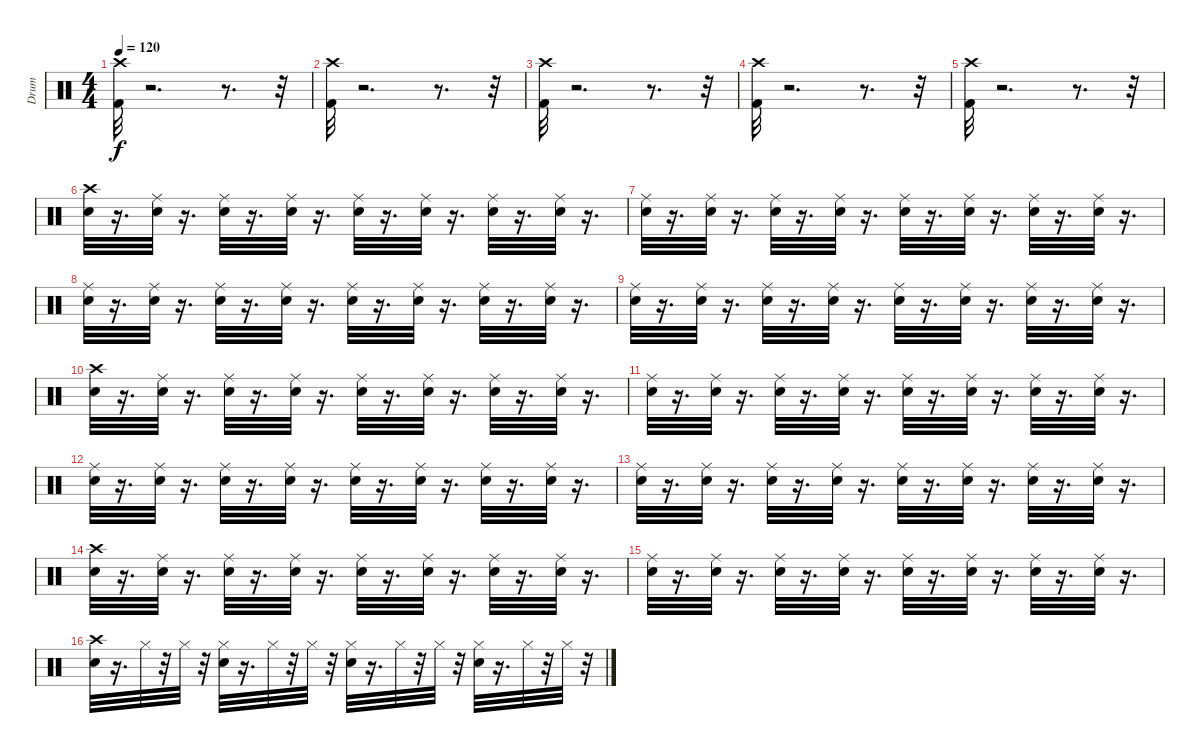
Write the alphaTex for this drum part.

\track ("Drum" "Drum") {instrument percussion}
\staff {score}
\articulation defaults
\ts (4 4)
\tempo 120
\clef neutral
\ks c
("Kick (hit) 2" "Crash high (hit)").32{dy f} r.2{d} r.8{d} r.32 |
("Kick (hit) 2" "Crash high (hit)").32 r.2{d} r.8{d} r.32 |
("Kick (hit) 2" "Crash high (hit)").32 r.2{d} r.8{d} r.32 |
("Kick (hit) 2" "Crash high (hit)").32 r.2{d} r.8{d} r.32 |
("Kick (hit) 2" "Crash high (hit)").32 r.2{d} r.8{d} r.32 |
("Crash high (hit)" "Snare (hit) 2").32 r.16{d} ("Ride (middle)" "Snare (hit) 2").32 r.16{d} ("Ride (middle)" "Snare (hit) 2").32 r.16{d} ("Ride (middle)" "Snare (hit) 2").32 r.16{d} ("Ride (middle)" "Snare (hit) 2").32 r.16{d} ("Ride (middle)" "Snare (hit) 2").32 r.16{d} ("Ride (middle)" "Snare (hit) 2").32 r.16{d} ("Ride (middle)" "Snare (hit) 2").32 r.16{d} |
("Ride (middle)" "Snare (hit) 2").32 r.16{d} ("Ride (middle)" "Snare (hit) 2").32 r.16{d} ("Ride (middle)" "Snare (hit) 2").32 r.16{d} ("Ride (middle)" "Snare (hit) 2").32 r.16{d} ("Ride (middle)" "Snare (hit) 2").32 r.16{d} ("Ride (middle)" "Snare (hit) 2").32 r.16{d} ("Ride (middle)" "Snare (hit) 2").32 r.16{d} ("Ride (middle)" "Snare (hit) 2").32 r.16{d} |
("Ride (middle)" "Snare (hit) 2").32 r.16{d} ("Ride (middle)" "Snare (hit) 2").32 r.16{d} ("Ride (middle)" "Snare (hit) 2").32 r.16{d} ("Ride (middle)" "Snare (hit) 2").32 r.16{d} ("Ride (middle)" "Snare (hit) 2").32 r.16{d} ("Ride (middle)" "Snare (hit) 2").32 r.16{d} ("Ride (middle)" "Snare (hit) 2").32 r.16{d} ("Ride (middle)" "Snare (hit) 2").32 r.16{d} |
("Ride (middle)" "Snare (hit) 2").32 r.16{d} ("Ride (middle)" "Snare (hit) 2").32 r.16{d} ("Ride (middle)" "Snare (hit) 2").32 r.16{d} ("Ride (middle)" "Snare (hit) 2").32 r.16{d} ("Ride (middle)" "Snare (hit) 2").32 r.16{d} ("Ride (middle)" "Snare (hit) 2").32 r.16{d} ("Ride (middle)" "Snare (hit) 2").32 r.16{d} ("Ride (middle)" "Snare (hit) 2").32 r.16{d} |
("Snare (hit) 2" "Crash high (hit)").32 r.16{d} ("Ride (middle)" "Snare (hit) 2").32 r.16{d} ("Ride (middle)" "Snare (hit) 2").32 r.16{d} ("Ride (middle)" "Snare (hit) 2").32 r.16{d} ("Ride (middle)" "Snare (hit) 2").32 r.16{d} ("Ride (middle)" "Snare (hit) 2").32 r.16{d} ("Ride (middle)" "Snare (hit) 2").32 r.16{d} ("Ride (middle)" "Snare (hit) 2").32 r.16{d} |
("Ride (middle)" "Snare (hit) 2").32 r.16{d} ("Ride (middle)" "Snare (hit) 2").32 r.16{d} ("Ride (middle)" "Snare (hit) 2").32 r.16{d} ("Ride (middle)" "Snare (hit) 2").32 r.16{d} ("Ride (middle)" "Snare (hit) 2").32 r.16{d} ("Ride (middle)" "Snare (hit) 2").32 r.16{d} ("Ride (middle)" "Snare (hit) 2").32 r.16{d} ("Ride (middle)" "Snare (hit) 2").32 r.16{d} |
("Ride (middle)" "Snare (hit) 2").32 r.16{d} ("Ride (middle)" "Snare (hit) 2").32 r.16{d} ("Ride (middle)" "Snare (hit) 2").32 r.16{d} ("Ride (middle)" "Snare (hit) 2").32 r.16{d} ("Ride (middle)" "Snare (hit) 2").32 r.16{d} ("Ride (middle)" "Snare (hit) 2").32 r.16{d} ("Ride (middle)" "Snare (hit) 2").32 r.16{d} ("Ride (middle)" "Snare (hit) 2").32 r.16{d} |
("Ride (middle)" "Snare (hit) 2").32 r.16{d} ("Ride (middle)" "Snare (hit) 2").32 r.16{d} ("Ride (middle)" "Snare (hit) 2").32 r.16{d} ("Ride (middle)" "Snare (hit) 2").32 r.16{d} ("Ride (middle)" "Snare (hit) 2").32 r.16{d} ("Ride (middle)" "Snare (hit) 2").32 r.16{d} ("Ride (middle)" "Snare (hit) 2").32 r.16{d} ("Ride (middle)" "Snare (hit) 2").32 r.16{d} |
("Snare (hit) 2" "Crash high (hit)").32 r.16{d} ("Ride (middle)" "Snare (hit) 2").32 r.16{d} ("Ride (middle)" "Snare (hit) 2").32 r.16{d} ("Ride (middle)" "Snare (hit) 2").32 r.16{d} ("Ride (middle)" "Snare (hit) 2").32 r.16{d} ("Ride (middle)" "Snare (hit) 2").32 r.16{d} ("Ride (middle)" "Snare (hit) 2").32 r.16{d} ("Ride (middle)" "Snare (hit) 2").32 r.16{d} |
("Ride (middle)" "Snare (hit) 2").32 r.16{d} ("Ride (middle)" "Snare (hit) 2").32 r.16{d} ("Ride (middle)" "Snare (hit) 2").32 r.16{d} ("Ride (middle)" "Snare (hit) 2").32 r.16{d} ("Ride (middle)" "Snare (hit) 2").32 r.16{d} ("Ride (middle)" "Snare (hit) 2").32 r.16{d} ("Ride (middle)" "Snare (hit) 2").32 r.16{d} ("Ride (middle)" "Snare (hit) 2").32 r.16{d} |
("Crash high (hit)" "Snare (hit) 2").32 r.16{d} "Hi-Hat (closed)".32 r.32 "Hi-Hat (closed)".32 r.32 ("Hi-Hat (closed)" "Snare (hit) 2").32 r.16{d} "Hi-Hat (closed)".32 r.32 "Hi-Hat (closed)".32 r.32 ("Hi-Hat (closed)" "Snare (hit) 2").32 r.16{d} "Hi-Hat (closed)".32 r.32 "Hi-Hat (closed)".32 r.32 ("Hi-Hat (closed)" "Snare (hit) 2").32 r.16{d} "Hi-Hat (closed)".32 r.32 "Hi-Hat (closed)".32 r.32
